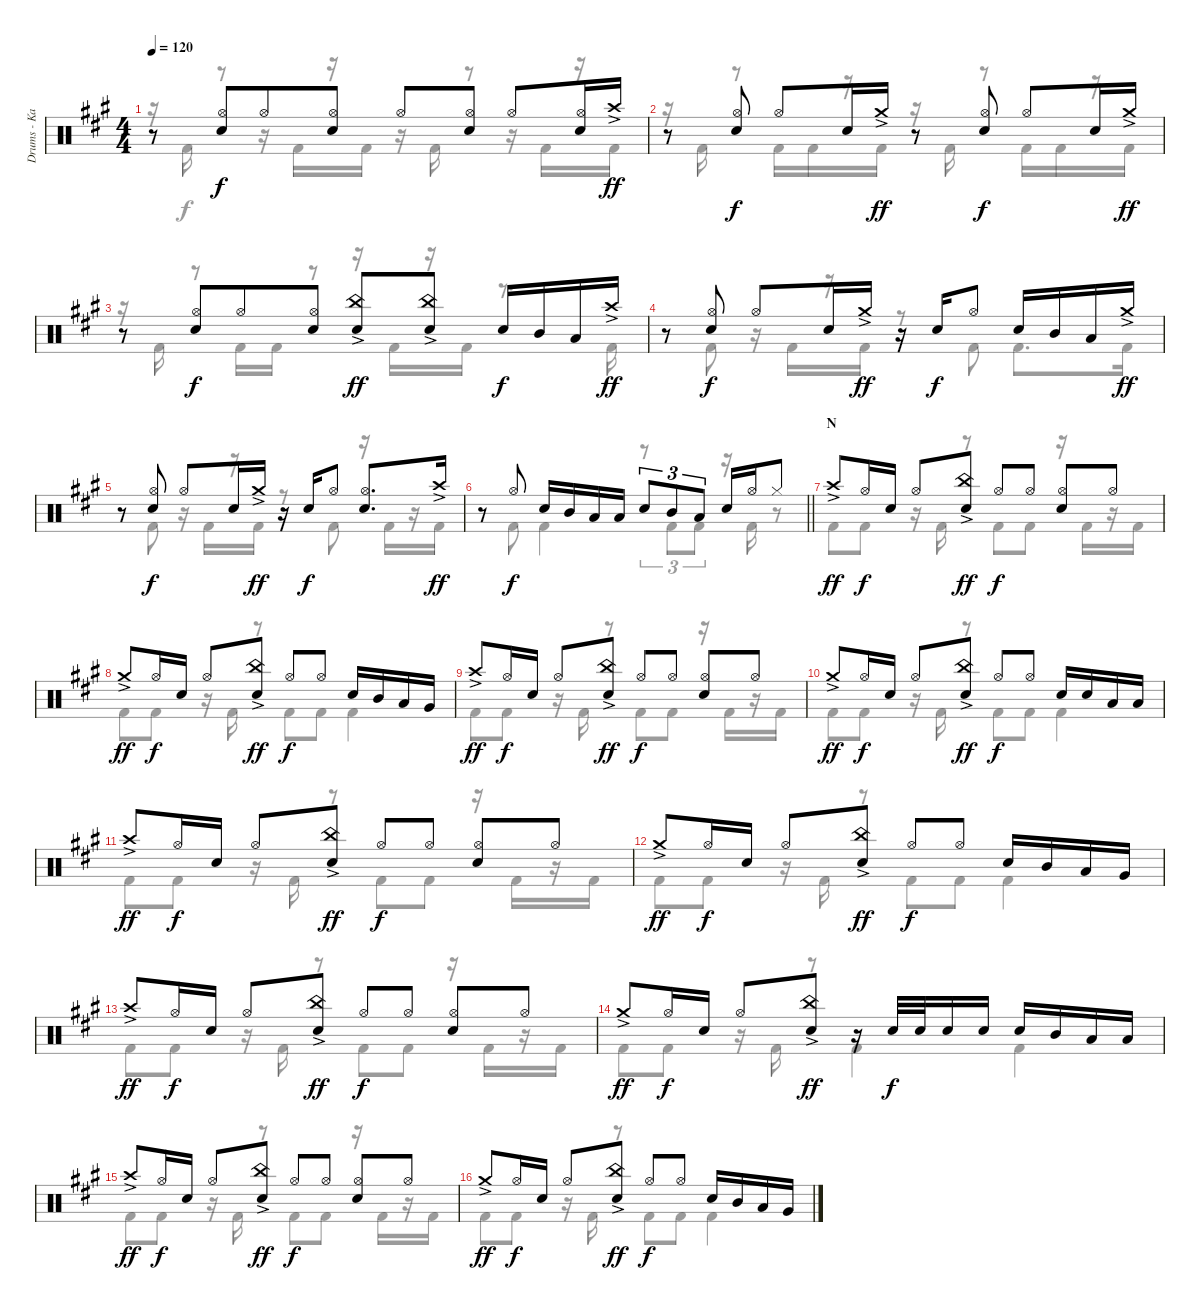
\track ("Drums - Kai" "Drums - Ka") {instrument percussion}
\staff {score}
\articulation defaults
\voice
\ts (4 4)
\tempo 120
\clef neutral
\ks a
r.8{dy ff} ("Hi-Hat (open)" "Snare (hit) 2").8{dy f beam merge} "Hi-Hat (open)".8 ("Hi-Hat (open)" "Snare (hit) 2").8 "Hi-Hat (open)".8 ("Hi-Hat (open)" "Snare (hit) 2").8 "Hi-Hat (open)".8 ("Hi-Hat (open)" "Snare (hit) 2").16 "Crash high (hit)"{ac}.16{dy ff} |
r.8 ("Hi-Hat (open)" "Snare (hit) 2").8{dy f} "Hi-Hat (open)".8 "Snare (hit) 2".16 "Crash medium (hit)"{ac}.16{dy ff} r.8 ("Hi-Hat (open)" "Snare (hit) 2").8{dy f} "Hi-Hat (open)".8 "Snare (hit) 2".16 "Crash medium (hit)"{ac}.16{dy ff} |
r.8 ("Hi-Hat (open)" "Snare (hit) 2").8{dy f beam merge} "Hi-Hat (open)".8 ("Hi-Hat (open)" "Snare (hit) 2").8 ("China (hit)"{ac} "Snare (hit) 2").8{dy ff} ("China (hit)"{ac} "Snare (hit) 2").8 "Snare (hit) 2".16{dy f} "Mid Tom (hit)".16 "Low Tom (hit)".16 "Crash high (hit)"{ac}.16{dy ff} |
r.8 ("Hi-Hat (open)" "Snare (hit) 2").8{dy f} "Hi-Hat (open)".8 "Snare (hit) 2".16 "Crash medium (hit)"{ac}.16{dy ff} r.16 "Snare (hit) 2".16{dy f} "Hi-Hat (open)".8 "Snare (hit) 2".16 "Mid Tom (hit)".16 "Low Tom (hit)".16 "Crash medium (hit)"{ac}.16{dy ff} |
r.8 ("Hi-Hat (open)" "Snare (hit) 2").8{dy f} "Hi-Hat (open)".8 "Snare (hit) 2".16 "Crash medium (hit)"{ac}.16{dy ff} r.16 "Snare (hit) 2".16{dy f} "Hi-Hat (open)".8 ("Hi-Hat (open)" "Snare (hit) 2").8{d} "Crash high (hit)"{ac}.16{dy ff} |
\barLineRight lightlight
r.8 "Hi-Hat (open)".8{dy f} "Snare (hit) 2".16 "Mid Tom (hit)".16 "Low Tom (hit)".16 "Low Tom (hit)".16 "Snare (hit) 2".8{tu (3 2)} "Mid Tom (hit)".8{tu (3 2)} "Low Tom (hit)".8{tu (3 2)} "Snare (hit) 2".16 "Hi-Hat (open)".16 "Hi-Hat (closed)".8 |
\section ("" "N")
"Crash high (hit)"{ac}.8{dy ff} "Hi-Hat (open)".16{dy f} "Snare (hit) 2".16 "Hi-Hat (open)".8 ("China (hit)"{ac} "Snare (hit) 2").8{dy ff} "Hi-Hat (open)".8{dy f} "Hi-Hat (open)".8 ("Hi-Hat (open)" "Snare (hit) 2").8 "Hi-Hat (open)".8 |
"Crash medium (hit)"{ac}.8{dy ff} "Hi-Hat (open)".16{dy f} "Snare (hit) 2".16 "Hi-Hat (open)".8 ("China (hit)"{ac} "Snare (hit) 2").8{dy ff} "Hi-Hat (open)".8{dy f} "Hi-Hat (open)".8 "Snare (hit) 2".16 "Mid Tom (hit)".16 "Low Tom (hit)".16 "Very Low Tom (hit)".16 |
"Crash high (hit)"{ac}.8{dy ff} "Hi-Hat (open)".16{dy f} "Snare (hit) 2".16 "Hi-Hat (open)".8 ("China (hit)"{ac} "Snare (hit) 2").8{dy ff} "Hi-Hat (open)".8{dy f} "Hi-Hat (open)".8 ("Hi-Hat (open)" "Snare (hit) 2").8 "Hi-Hat (open)".8 |
"Crash medium (hit)"{ac}.8{dy ff} "Hi-Hat (open)".16{dy f} "Snare (hit) 2".16 "Hi-Hat (open)".8 ("China (hit)"{ac} "Snare (hit) 2").8{dy ff} "Hi-Hat (open)".8{dy f} "Hi-Hat (open)".8 "Snare (hit) 2".16 "Snare (hit) 2".16 "Low Tom (hit)".16 "Low Tom (hit)".16 |
"Crash high (hit)"{ac}.8{dy ff} "Hi-Hat (open)".16{dy f} "Snare (hit) 2".16 "Hi-Hat (open)".8 ("China (hit)"{ac} "Snare (hit) 2").8{dy ff} "Hi-Hat (open)".8{dy f} "Hi-Hat (open)".8 ("Hi-Hat (open)" "Snare (hit) 2").8 "Hi-Hat (open)".8 |
"Crash medium (hit)"{ac}.8{dy ff} "Hi-Hat (open)".16{dy f} "Snare (hit) 2".16 "Hi-Hat (open)".8 ("China (hit)"{ac} "Snare (hit) 2").8{dy ff} "Hi-Hat (open)".8{dy f} "Hi-Hat (open)".8 "Snare (hit) 2".16 "Mid Tom (hit)".16 "Low Tom (hit)".16 "Very Low Tom (hit)".16 |
"Crash high (hit)"{ac}.8{dy ff} "Hi-Hat (open)".16{dy f} "Snare (hit) 2".16 "Hi-Hat (open)".8 ("China (hit)"{ac} "Snare (hit) 2").8{dy ff} "Hi-Hat (open)".8{dy f} "Hi-Hat (open)".8 ("Hi-Hat (open)" "Snare (hit) 2").8 "Hi-Hat (open)".8 |
"Crash medium (hit)"{ac}.8{dy ff} "Hi-Hat (open)".16{dy f} "Snare (hit) 2".16 "Hi-Hat (open)".8 ("China (hit)"{ac} "Snare (hit) 2").8{dy ff} r.16 "Snare (hit) 2".32{dy f} "Snare (hit) 2".32 "Snare (hit) 2".16 "Snare (hit) 2".16 "Snare (hit) 2".16 "Mid Tom (hit)".16 "Low Tom (hit)".16 "Low Tom (hit)".16 |
"Crash high (hit)"{ac}.8{dy ff} "Hi-Hat (open)".16{dy f} "Snare (hit) 2".16 "Hi-Hat (open)".8 ("China (hit)"{ac} "Snare (hit) 2").8{dy ff} "Hi-Hat (open)".8{dy f} "Hi-Hat (open)".8 ("Hi-Hat (open)" "Snare (hit) 2").8 "Hi-Hat (open)".8 |
"Crash medium (hit)"{ac}.8{dy ff} "Hi-Hat (open)".16{dy f} "Snare (hit) 2".16 "Hi-Hat (open)".8 ("China (hit)"{ac} "Snare (hit) 2").8{dy ff} "Hi-Hat (open)".8{dy f} "Hi-Hat (open)".8 "Snare (hit) 2".16 "Mid Tom (hit)".16 "Low Tom (hit)".16 "Very Low Tom (hit)".16
\voice
\clef neutral
\ottava regular
\simile none
\ks a
r.16{dy f} "Kick (hit) 2".16 r.8 r.16 "Kick (hit) 2".16 r.16 "Kick (hit) 2".16 r.16 "Kick (hit) 2".16 r.8 r.16 "Kick (hit) 2".16 r.16 "Kick (hit) 2".16 |
r.16 "Kick (hit) 2".16 r.8 "Kick (hit) 2".16 "Kick (hit) 2".16 r.16 "Kick (hit) 2".16 r.16 "Kick (hit) 2".16 r.8 "Kick (hit) 2".16 "Kick (hit) 2".16 r.16 "Kick (hit) 2".16 |
r.16 "Kick (hit) 2".16 r.8 "Kick (hit) 2".16 "Kick (hit) 2".16 r.8 r.16 "Kick (hit) 2".16 r.16 "Kick (hit) 2".16 r.8{d} "Kick (hit) 2".16 |
r.8 "Kick (hit) 2".8 r.16 "Kick (hit) 2".16 r.16 "Kick (hit) 2".16 r.8 "Kick (hit) 2".8 "Kick (hit) 2".8{d} "Kick (hit) 2".16 |
r.8 "Kick (hit) 2".8 r.16 "Kick (hit) 2".16 r.16 "Kick (hit) 2".16 r.8 "Kick (hit) 2".8 r.16 "Kick (hit) 2".16 r.16 "Kick (hit) 2".16 |
\barLineRight lightlight
r.8 "Kick (hit) 2".8 "Kick (hit) 2".4 r.8{tu (3 2)} "Kick (hit) 2".8{tu (3 2)} "Kick (hit) 2".8{tu (3 2)} r.16 "Kick (hit) 2".16 r.8 |
"Kick (hit) 2".8 "Kick (hit) 2".8 r.16 "Kick (hit) 2".16 r.8 "Kick (hit) 2".8 "Kick (hit) 2".8 r.16 "Kick (hit) 2".16 r.16 "Kick (hit) 2".16 |
"Kick (hit) 2".8 "Kick (hit) 2".8 r.16 "Kick (hit) 2".16 r.8 "Kick (hit) 2".8 "Kick (hit) 2".8 "Kick (hit) 2".4 |
"Kick (hit) 2".8 "Kick (hit) 2".8 r.16 "Kick (hit) 2".16 r.8 "Kick (hit) 2".8 "Kick (hit) 2".8 r.16 "Kick (hit) 2".16 r.16 "Kick (hit) 2".16 |
"Kick (hit) 2".8 "Kick (hit) 2".8 r.16 "Kick (hit) 2".16 r.8 "Kick (hit) 2".8 "Kick (hit) 2".8 "Kick (hit) 2".4 |
"Kick (hit) 2".8 "Kick (hit) 2".8 r.16 "Kick (hit) 2".16 r.8 "Kick (hit) 2".8 "Kick (hit) 2".8 r.16 "Kick (hit) 2".16 r.16 "Kick (hit) 2".16 |
"Kick (hit) 2".8 "Kick (hit) 2".8 r.16 "Kick (hit) 2".16 r.8 "Kick (hit) 2".8 "Kick (hit) 2".8 "Kick (hit) 2".4 |
"Kick (hit) 2".8 "Kick (hit) 2".8 r.16 "Kick (hit) 2".16 r.8 "Kick (hit) 2".8 "Kick (hit) 2".8 r.16 "Kick (hit) 2".16 r.16 "Kick (hit) 2".16 |
"Kick (hit) 2".8 "Kick (hit) 2".8 r.16 "Kick (hit) 2".16 r.8 "Kick (hit) 2".4 "Kick (hit) 2".4 |
"Kick (hit) 2".8 "Kick (hit) 2".8 r.16 "Kick (hit) 2".16 r.8 "Kick (hit) 2".8 "Kick (hit) 2".8 r.16 "Kick (hit) 2".16 r.16 "Kick (hit) 2".16 |
"Kick (hit) 2".8 "Kick (hit) 2".8 r.16 "Kick (hit) 2".16 r.8 "Kick (hit) 2".8 "Kick (hit) 2".8 "Kick (hit) 2".4
